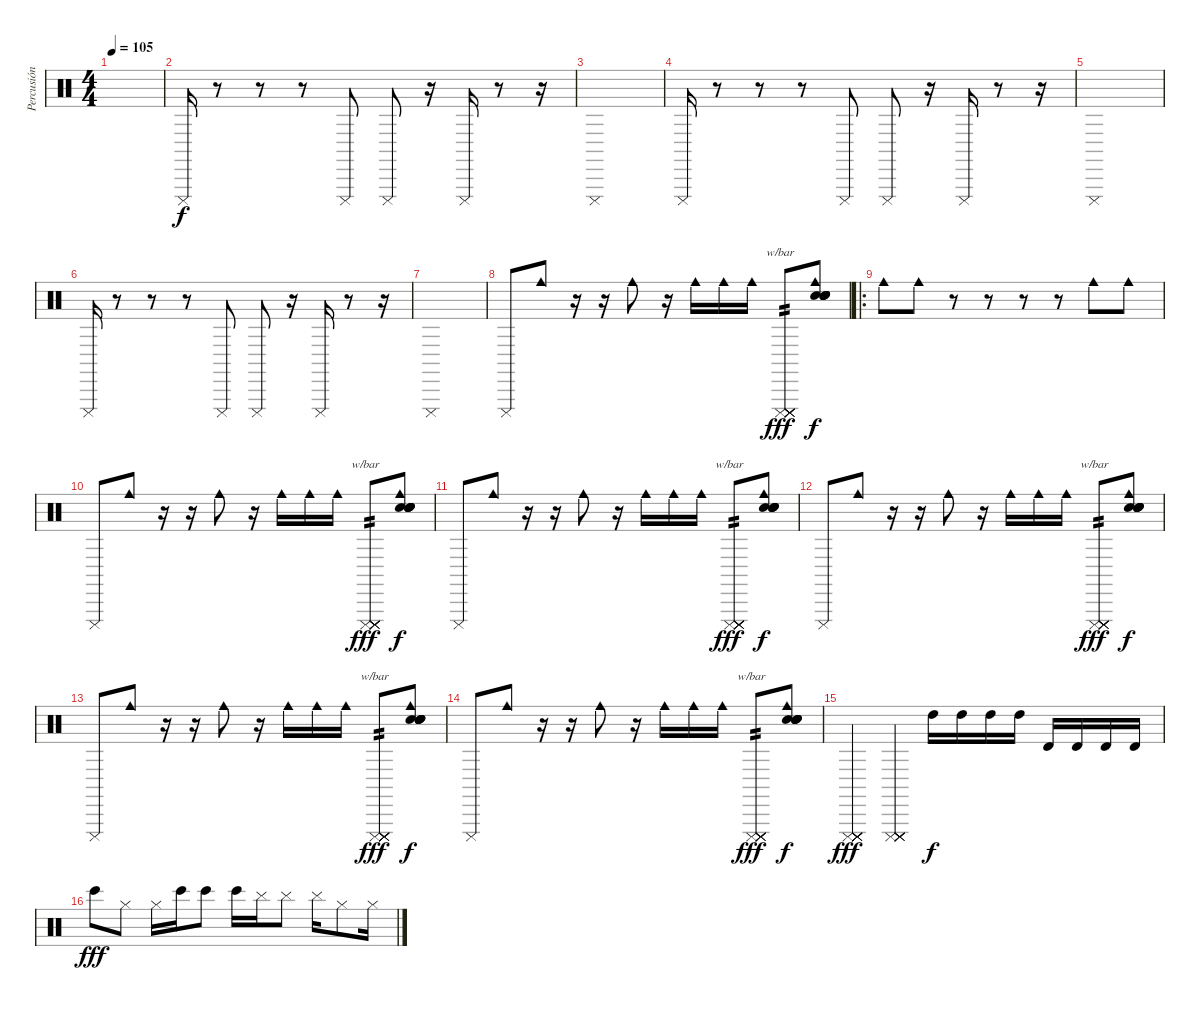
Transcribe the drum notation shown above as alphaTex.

\track ("Percusión" "Percusión") {instrument percussion}
\staff {score}
\articulation defaults
\ts (4 4)
\tempo 105
\clef neutral
\ks c
|
"Cuica (mute)".16 r.8 r.8 r.8 "Cuica (mute)".8 "Cuica (mute)".8 r.16 "Cuica (mute)".16 r.8 r.16 |
"Cuica (mute)".1 |
"Cuica (mute)".16 r.8 r.8 r.8 "Cuica (mute)".8 "Cuica (mute)".8 r.16 "Cuica (mute)".16 r.8 r.16 |
"Cuica (mute)".1 |
"Cuica (mute)".16 r.8 r.8 r.8 "Cuica (mute)".8 "Cuica (mute)".8 r.16 "Cuica (mute)".16 r.8 r.16 |
"Cuica (mute)".1 |
"Cuica (mute)".8 "Cowbell medium (hit)".8 r.16 r.16 "Cowbell medium (hit)".8 r.16 "Cowbell medium (hit)".16 "Cowbell medium (hit)".16 "Cowbell medium (hit)".16 ("Cuica (mute)" "Cuica (mute)" "Cuica (mute)" "Cuica (mute)" "Cuica (mute)" "Cuica (mute)").8{tbe (custom default 0 0 21 24 25 24 28 24 30 24 36 24 57 -24 60 -24) tp 2 dy fff} ("Cowbell medium (hit)"{t} "Snare (hit)"{t} "Snare (hit)"{t} "Snare (hit)"{t} "Snare (hit)"{t} "Snare (hit)"{t}).8{dy f} |
\ro "Cowbell medium (hit)".8 "Cowbell medium (hit)".8
r.8 r.8 r.8 r.8 "Cowbell medium (hit)".8 "Cowbell medium (hit)".8 |
"Cuica (mute)".8 "Cowbell medium (hit)".8 r.16 r.16 "Cowbell medium (hit)".8 r.16 "Cowbell medium (hit)".16 "Cowbell medium (hit)".16 "Cowbell medium (hit)".16 ("Cuica (mute)" "Cuica (mute)" "Cuica (mute)" "Cuica (mute)" "Cuica (mute)" "Cuica (mute)").8{tbe (custom default 0 0 21 24 25 24 28 24 30 24 36 24 57 -24 60 -24) tp 2 dy fff} ("Cowbell medium (hit)"{t} "Snare (hit)"{t} "Snare (hit)"{t} "Snare (hit)"{t} "Snare (hit)"{t} "Snare (hit)"{t}).8{dy f} |
"Cuica (mute)".8 "Cowbell medium (hit)".8 r.16 r.16 "Cowbell medium (hit)".8 r.16 "Cowbell medium (hit)".16 "Cowbell medium (hit)".16 "Cowbell medium (hit)".16 ("Cuica (mute)" "Cuica (mute)" "Cuica (mute)" "Cuica (mute)" "Cuica (mute)" "Cuica (mute)").8{tbe (custom default 0 0 21 24 25 24 28 24 30 24 36 24 57 -24 60 -24) tp 2 dy fff} ("Cowbell medium (hit)"{t} "Snare (hit)"{t} "Snare (hit)"{t} "Snare (hit)"{t} "Snare (hit)"{t} "Snare (hit)"{t}).8{dy f} |
"Cuica (mute)".8 "Cowbell medium (hit)".8 r.16 r.16 "Cowbell medium (hit)".8 r.16 "Cowbell medium (hit)".16 "Cowbell medium (hit)".16 "Cowbell medium (hit)".16 ("Cuica (mute)" "Cuica (mute)" "Cuica (mute)" "Cuica (mute)" "Cuica (mute)" "Cuica (mute)").8{tbe (custom default 0 0 21 24 25 24 28 24 30 24 36 24 57 -24 60 -24) tp 2 dy fff} ("Cowbell medium (hit)"{t} "Snare (hit)"{t} "Snare (hit)"{t} "Snare (hit)"{t} "Snare (hit)"{t} "Snare (hit)"{t}).8{dy f} |
"Cuica (mute)".8 "Cowbell medium (hit)".8 r.16 r.16 "Cowbell medium (hit)".8 r.16 "Cowbell medium (hit)".16 "Cowbell medium (hit)".16 "Cowbell medium (hit)".16 ("Cuica (mute)" "Cuica (mute)" "Cuica (mute)" "Cuica (mute)" "Cuica (mute)" "Cuica (mute)").8{tbe (custom default 0 0 21 24 25 24 28 24 30 24 36 24 57 -24 60 -24) tp 2 dy fff} ("Cowbell medium (hit)"{t} "Snare (hit)"{t} "Snare (hit)"{t} "Snare (hit)"{t} "Snare (hit)"{t} "Snare (hit)"{t}).8{dy f} |
"Cuica (mute)".8 "Cowbell medium (hit)".8 r.16 r.16 "Cowbell medium (hit)".8 r.16 "Cowbell medium (hit)".16 "Cowbell medium (hit)".16 "Cowbell medium (hit)".16 ("Cuica (mute)" "Cuica (mute)" "Cuica (mute)" "Cuica (mute)" "Cuica (mute)" "Cuica (mute)").8{tbe (custom default 0 0 21 24 25 24 28 24 30 24 36 24 57 -24 60 -24) tp 2 dy fff} ("Cowbell medium (hit)"{t} "Snare (hit)"{t} "Snare (hit)"{t} "Snare (hit)"{t} "Snare (hit)"{t} "Snare (hit)"{t}).8{dy f} |
("Cuica (mute)" "Cuica (mute)" "Cuica (mute)" "Cuica (mute)" "Cuica (mute)" "Cuica (mute)").4{dy fff} ("Cuica (mute)" "Cuica (mute)" "Cuica (mute)" "Cuica (mute)" "Cuica (mute)" "Cuica (mute)").4 "High Tom (hit)".16{dy f} "High Tom (hit)".16 "High Tom (hit)".16 "High Tom (hit)".16 "Timbale high (hit)".16 "Timbale high (hit)".16 "Timbale high (hit)".16 "Timbale high (hit)".16 |
"Bongo High (hit)".8{dy fff} "Hi-Hat (closed)".8 "Hi-Hat (closed)".16 "Bongo High (hit)".16 "Bongo High (hit)".8 "Bongo High (hit)".16 "Cymbal (hit)".16 "Cymbal (hit)".8 "Cymbal (hit)".16 "Hi-Hat (closed)".8 "Hi-Hat (closed)".16
